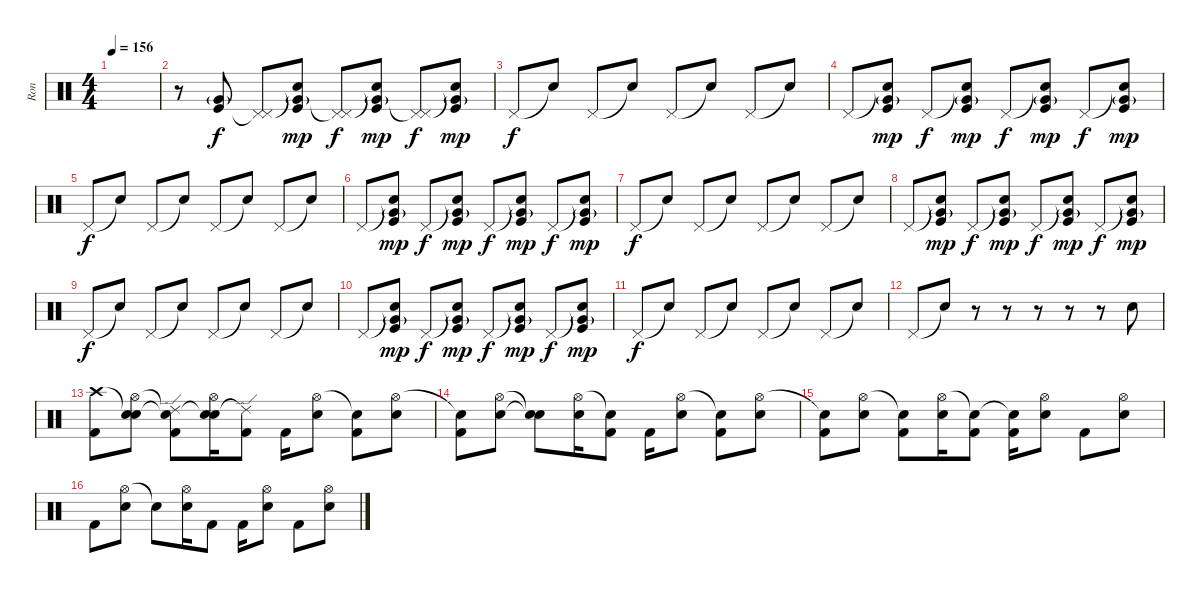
\track ("Ron" "Ron") {instrument percussion}
\staff {score}
\articulation defaults
\ts (4 4)
\tempo 156
\clef neutral
\ks c
|
r.8 ("Very Low Tom (hit)"{g} "Kick (hit)").8 ("Pedal Hi-Hat (hit)" "Pedal Hi-Hat (hit)"{t}).8{dy f} ("Snare (hit)"{t} "Very Low Tom (hit)"{g} "Kick (hit)").8{dy mp} ("Pedal Hi-Hat (hit)" "Pedal Hi-Hat (hit)"{t}).8{dy f} ("Snare (hit)"{t} "Very Low Tom (hit)"{g} "Kick (hit)").8{dy mp} ("Pedal Hi-Hat (hit)" "Pedal Hi-Hat (hit)"{t}).8{dy f} ("Snare (hit)"{t} "Very Low Tom (hit)"{g} "Kick (hit)").8{dy mp} |
"Pedal Hi-Hat (hit)".8{dy f} "Snare (hit)"{t}.8 "Pedal Hi-Hat (hit)".8 "Snare (hit)"{t}.8 "Pedal Hi-Hat (hit)".8 "Snare (hit)"{t}.8 "Pedal Hi-Hat (hit)".8 "Snare (hit)"{t}.8 |
"Pedal Hi-Hat (hit)".8 ("Snare (hit)"{t} "Very Low Tom (hit)"{g} "Kick (hit)").8{dy mp} "Pedal Hi-Hat (hit)".8{dy f} ("Snare (hit)"{t} "Very Low Tom (hit)"{g} "Kick (hit)").8{dy mp} "Pedal Hi-Hat (hit)".8{dy f} ("Snare (hit)"{t} "Very Low Tom (hit)"{g} "Kick (hit)").8{dy mp} "Pedal Hi-Hat (hit)".8{dy f} ("Snare (hit)"{t} "Very Low Tom (hit)"{g} "Kick (hit)").8{dy mp} |
"Pedal Hi-Hat (hit)".8{dy f} "Snare (hit)"{t}.8 "Pedal Hi-Hat (hit)".8 "Snare (hit)"{t}.8 "Pedal Hi-Hat (hit)".8 "Snare (hit)"{t}.8 "Pedal Hi-Hat (hit)".8 "Snare (hit)"{t}.8 |
"Pedal Hi-Hat (hit)".8 ("Snare (hit)"{t} "Very Low Tom (hit)"{g} "Kick (hit)").8{dy mp} "Pedal Hi-Hat (hit)".8{dy f} ("Snare (hit)"{t} "Very Low Tom (hit)"{g} "Kick (hit)").8{dy mp} "Pedal Hi-Hat (hit)".8{dy f} ("Snare (hit)"{t} "Very Low Tom (hit)"{g} "Kick (hit)").8{dy mp} "Pedal Hi-Hat (hit)".8{dy f} ("Snare (hit)"{t} "Very Low Tom (hit)"{g} "Kick (hit)").8{dy mp} |
"Pedal Hi-Hat (hit)".8{dy f} "Snare (hit)"{t}.8 "Pedal Hi-Hat (hit)".8 "Snare (hit)"{t}.8 "Pedal Hi-Hat (hit)".8 "Snare (hit)"{t}.8 "Pedal Hi-Hat (hit)".8 "Snare (hit)"{t}.8 |
"Pedal Hi-Hat (hit)".8 ("Snare (hit)"{t} "Very Low Tom (hit)"{g} "Kick (hit)").8{dy mp} "Pedal Hi-Hat (hit)".8{dy f} ("Snare (hit)"{t} "Very Low Tom (hit)"{g} "Kick (hit)").8{dy mp} "Pedal Hi-Hat (hit)".8{dy f} ("Snare (hit)"{t} "Very Low Tom (hit)"{g} "Kick (hit)").8{dy mp} "Pedal Hi-Hat (hit)".8{dy f} ("Snare (hit)"{t} "Very Low Tom (hit)"{g} "Kick (hit)").8{dy mp} |
"Pedal Hi-Hat (hit)".8{dy f} "Snare (hit)"{t}.8 "Pedal Hi-Hat (hit)".8 "Snare (hit)"{t}.8 "Pedal Hi-Hat (hit)".8 "Snare (hit)"{t}.8 "Pedal Hi-Hat (hit)".8 "Snare (hit)"{t}.8 |
"Pedal Hi-Hat (hit)".8 ("Snare (hit)"{t} "Very Low Tom (hit)"{g} "Kick (hit)").8{dy mp} "Pedal Hi-Hat (hit)".8{dy f} ("Snare (hit)"{t} "Very Low Tom (hit)"{g} "Kick (hit)").8{dy mp} "Pedal Hi-Hat (hit)".8{dy f} ("Snare (hit)"{t} "Very Low Tom (hit)"{g} "Kick (hit)").8{dy mp} "Pedal Hi-Hat (hit)".8{dy f} ("Snare (hit)"{t} "Very Low Tom (hit)"{g} "Kick (hit)").8{dy mp} |
"Pedal Hi-Hat (hit)".8{dy f} "Snare (hit)"{t}.8 "Pedal Hi-Hat (hit)".8 "Snare (hit)"{t}.8 "Pedal Hi-Hat (hit)".8 "Snare (hit)"{t}.8 "Pedal Hi-Hat (hit)".8 "Snare (hit)"{t}.8 |
"Pedal Hi-Hat (hit)".8 "Snare (hit)"{t}.8 r.8 r.8 r.8 r.8 r.8 "Electric Snare (hit)".8 |
("Crash high (hit)" "Kick (hit) 2").8 ("Snare (hit)"{t} "Hi-Hat (open)" "Electric Snare (hit)").8 ("Snare (hit)"{t} "Ride (edge) 2"{t} "Kick (hit) 2").8 ("Snare (hit)"{t} "Hi-Hat (open)" "Electric Snare (hit)").16 ("Ride (edge) 2"{t} "Kick (hit) 2").8 "Kick (hit) 2".16 ("Hi-Hat (open)" "Electric Snare (hit)").8 ("Snare (hit)"{t} "Kick (hit) 2").8 ("Hi-Hat (open)" "Electric Snare (hit)").8 |
("Snare (hit)"{t} "Kick (hit) 2").8 ("Hi-Hat (open)" "Electric Snare (hit)").8 ("Snare (hit)"{t} "Snare (hit)"{t}).8 ("Hi-Hat (open)" "Electric Snare (hit)").16 ("Snare (hit)"{t} "Kick (hit) 2").8 "Kick (hit) 2".16 ("Hi-Hat (open)" "Electric Snare (hit)").8 ("Snare (hit)"{t} "Kick (hit) 2").8 ("Hi-Hat (open)" "Electric Snare (hit)").8 |
("Snare (hit)"{t} "Kick (hit) 2").8 ("Hi-Hat (open)" "Electric Snare (hit)").8 ("Snare (hit)"{t} "Kick (hit) 2").8 ("Hi-Hat (open)" "Electric Snare (hit)").16 ("Snare (hit)"{t} "Kick (hit) 2").8 ("Snare (hit)"{t} "Kick (hit) 2").16 ("Hi-Hat (open)" "Electric Snare (hit)").8 "Kick (hit) 2".8 ("Hi-Hat (open)" "Electric Snare (hit)").8 |
"Kick (hit) 2".8 ("Hi-Hat (open)" "Electric Snare (hit)").8 "Snare (hit)"{t}.8 ("Hi-Hat (open)" "Electric Snare (hit)").16 "Kick (hit) 2".8 "Kick (hit) 2".16 ("Hi-Hat (open)" "Electric Snare (hit)").8 "Kick (hit) 2".8 ("Hi-Hat (open)" "Electric Snare (hit)").8
